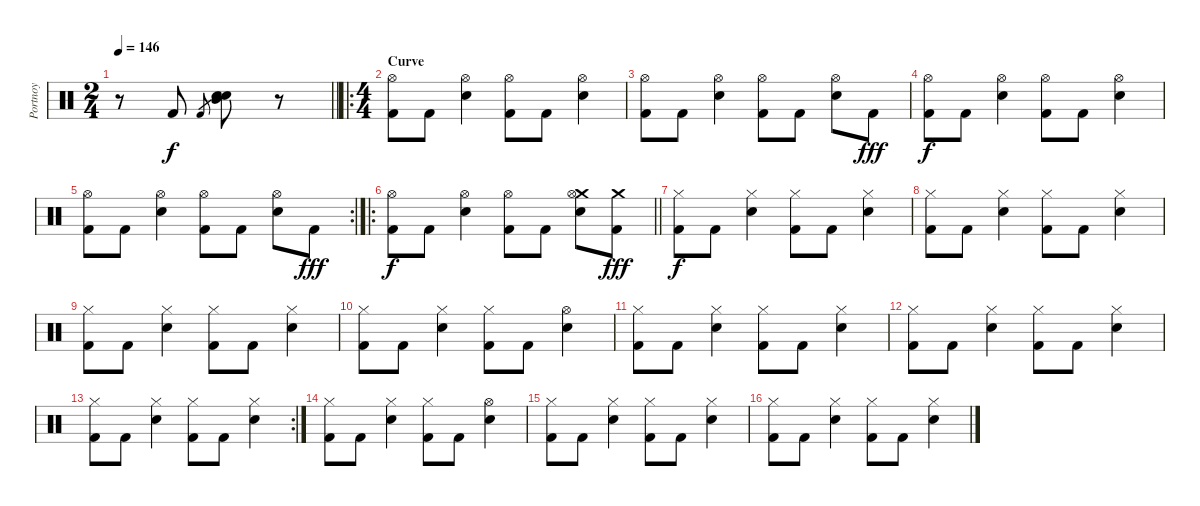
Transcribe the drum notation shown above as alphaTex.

\track ("Portnoy" "Portnoy") {instrument percussion}
\staff {score}
\articulation defaults
\ts (2 4)
\tempo 146
\clef neutral
\barLineRight lightlight
\ks c
r.8{dy f} "Kick (hit) 2".8 "Kick (hit) 2".8{gr} ("Snare (hit) 2" "Electric Snare (hit)" "Mid Tom (hit)").8 r.8 |
\ro
\ts (4 4)
\section ("" "Curve")
("Hi-Hat (open)" "Kick (hit) 2").8{balance 8} "Kick (hit) 2".8 ("Hi-Hat (open)" "Electric Snare (hit)").4 ("Hi-Hat (open)" "Kick (hit) 2").8 "Kick (hit) 2".8 ("Hi-Hat (open)" "Electric Snare (hit)").4 |
("Hi-Hat (open)" "Kick (hit) 2").8 "Kick (hit) 2".8 ("Hi-Hat (open)" "Electric Snare (hit)").4 ("Hi-Hat (open)" "Kick (hit) 2").8 "Kick (hit) 2".8 ("Hi-Hat (open)" "Electric Snare (hit)").8 "Kick (hit) 2".8{dy fff} |
("Hi-Hat (open)" "Kick (hit) 2").8{dy f} "Kick (hit) 2".8 ("Hi-Hat (open)" "Electric Snare (hit)").4 ("Hi-Hat (open)" "Kick (hit) 2").8 "Kick (hit) 2".8 ("Hi-Hat (open)" "Electric Snare (hit)").4 |
\rc 2
("Hi-Hat (open)" "Kick (hit) 2").8 "Kick (hit) 2".8 ("Hi-Hat (open)" "Electric Snare (hit)").4 ("Hi-Hat (open)" "Kick (hit) 2").8 "Kick (hit) 2".8 ("Hi-Hat (open)" "Electric Snare (hit)").8 "Kick (hit) 2".8{dy fff} |
\ro
\barLineRight lightlight
("Hi-Hat (open)" "Kick (hit) 2").8{dy f} "Kick (hit) 2".8 ("Hi-Hat (open)" "Electric Snare (hit)").4 ("Hi-Hat (open)" "Kick (hit) 2").8 "Kick (hit) 2".8 ("Crash medium (hit)" "Hi-Hat (open)" "Electric Snare (hit)").8 ("Crash medium (hit)" "Kick (hit) 2").8{dy fff} |
("Hi-Hat (closed)" "Kick (hit) 2").8{dy f} "Kick (hit) 2".8 ("Hi-Hat (closed)" "Electric Snare (hit)").4 ("Hi-Hat (closed)" "Kick (hit) 2").8 "Kick (hit) 2".8 ("Hi-Hat (closed)" "Electric Snare (hit)").4 |
("Hi-Hat (closed)" "Kick (hit) 2").8 "Kick (hit) 2".8 ("Hi-Hat (closed)" "Electric Snare (hit)").4 ("Hi-Hat (closed)" "Kick (hit) 2").8 "Kick (hit) 2".8 ("Hi-Hat (closed)" "Electric Snare (hit)").4 |
("Hi-Hat (closed)" "Kick (hit) 2").8 "Kick (hit) 2".8 ("Hi-Hat (closed)" "Electric Snare (hit)").4 ("Hi-Hat (closed)" "Kick (hit) 2").8 "Kick (hit) 2".8 ("Hi-Hat (closed)" "Electric Snare (hit)").4 |
("Hi-Hat (closed)" "Kick (hit) 2").8 "Kick (hit) 2".8 ("Hi-Hat (closed)" "Electric Snare (hit)").4 ("Hi-Hat (closed)" "Kick (hit) 2").8 "Kick (hit) 2".8 ("Hi-Hat (open)" "Electric Snare (hit)").4 |
("Hi-Hat (closed)" "Kick (hit) 2").8 "Kick (hit) 2".8 ("Hi-Hat (closed)" "Electric Snare (hit)").4 ("Hi-Hat (closed)" "Kick (hit) 2").8 "Kick (hit) 2".8 ("Hi-Hat (closed)" "Electric Snare (hit)").4 |
("Hi-Hat (closed)" "Kick (hit) 2").8 "Kick (hit) 2".8 ("Hi-Hat (closed)" "Electric Snare (hit)").4 ("Hi-Hat (closed)" "Kick (hit) 2").8 "Kick (hit) 2".8 ("Hi-Hat (closed)" "Electric Snare (hit)").4 |
\rc 2
("Hi-Hat (closed)" "Kick (hit) 2").8 "Kick (hit) 2".8 ("Hi-Hat (closed)" "Electric Snare (hit)").4 ("Hi-Hat (closed)" "Kick (hit) 2").8 "Kick (hit) 2".8 ("Hi-Hat (closed)" "Electric Snare (hit)").4 |
("Hi-Hat (closed)" "Kick (hit) 2").8 "Kick (hit) 2".8 ("Hi-Hat (closed)" "Electric Snare (hit)").4 ("Hi-Hat (closed)" "Kick (hit) 2").8 "Kick (hit) 2".8 ("Hi-Hat (open)" "Electric Snare (hit)").4 |
("Hi-Hat (closed)" "Kick (hit) 2").8 "Kick (hit) 2".8 ("Hi-Hat (closed)" "Electric Snare (hit)").4 ("Hi-Hat (closed)" "Kick (hit) 2").8 "Kick (hit) 2".8 ("Hi-Hat (closed)" "Electric Snare (hit)").4 |
("Hi-Hat (closed)" "Kick (hit) 2").8 "Kick (hit) 2".8 ("Hi-Hat (closed)" "Electric Snare (hit)").4 ("Hi-Hat (closed)" "Kick (hit) 2").8 "Kick (hit) 2".8 ("Hi-Hat (closed)" "Electric Snare (hit)").4
